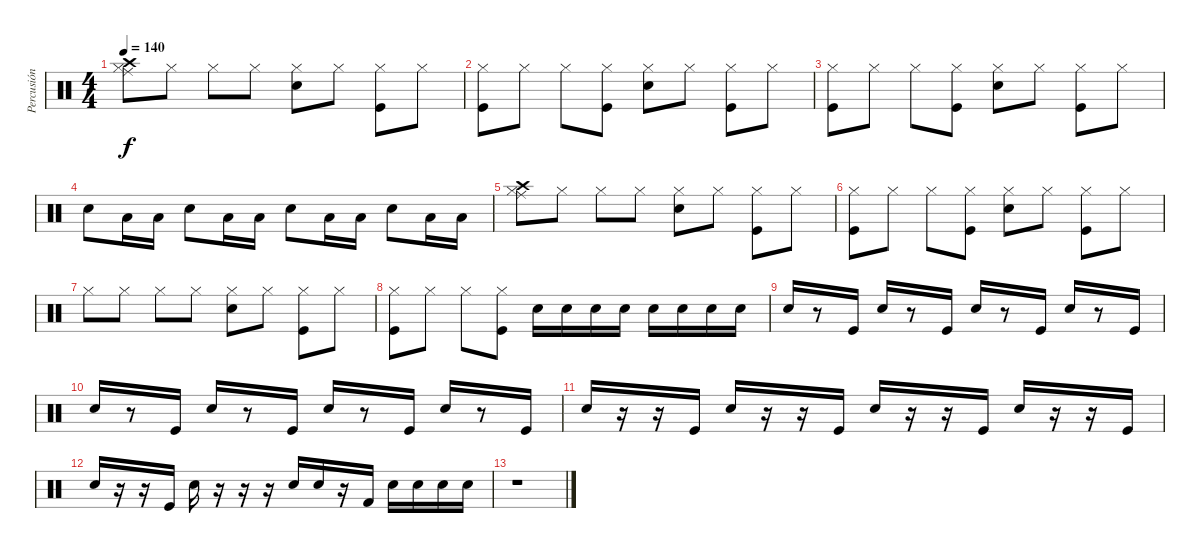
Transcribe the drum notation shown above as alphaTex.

\track ("Percusión" "Percusión") {instrument percussion}
\staff {score}
\articulation defaults
\ts (4 4)
\tempo 140
\clef neutral
\ks c
("Crash high (hit)" "Hi-Hat (closed)" "Ride (middle)").8{dy f} "Hi-Hat (closed)".8 "Hi-Hat (closed)".8 "Hi-Hat (closed)".8 ("Hi-Hat (closed)" "Snare (hit) 2").8 "Hi-Hat (closed)".8 ("Hi-Hat (closed)" "Kick (hit)").8 "Hi-Hat (closed)".8 |
("Hi-Hat (closed)" "Kick (hit)").8 "Hi-Hat (closed)".8 "Hi-Hat (closed)".8 ("Hi-Hat (closed)" "Kick (hit)").8 ("Hi-Hat (closed)" "Snare (hit) 2").8 "Hi-Hat (closed)".8 ("Hi-Hat (closed)" "Kick (hit)").8 "Hi-Hat (closed)".8 |
("Hi-Hat (closed)" "Kick (hit)").8 "Hi-Hat (closed)".8 "Hi-Hat (closed)".8 ("Hi-Hat (closed)" "Kick (hit)").8 ("Hi-Hat (closed)" "Snare (hit) 2").8 "Hi-Hat (closed)".8 ("Hi-Hat (closed)" "Kick (hit)").8 "Hi-Hat (closed)".8 |
"Snare (hit) 2".8 "Low Tom (hit)".16 "Low Tom (hit)".16 "Snare (hit) 2".8 "Low Tom (hit)".16 "Low Tom (hit)".16 "Snare (hit) 2".8 "Low Tom (hit)".16 "Low Tom (hit)".16 "Snare (hit) 2".8 "Low Tom (hit)".16 "Low Tom (hit)".16 |
("Crash high (hit)" "Hi-Hat (closed)" "Ride (middle)").8 "Hi-Hat (closed)".8 "Hi-Hat (closed)".8 "Hi-Hat (closed)".8 ("Hi-Hat (closed)" "Snare (hit) 2").8 "Hi-Hat (closed)".8 ("Hi-Hat (closed)" "Kick (hit)").8 "Hi-Hat (closed)".8 |
("Hi-Hat (closed)" "Kick (hit)").8 "Hi-Hat (closed)".8 "Hi-Hat (closed)".8 ("Hi-Hat (closed)" "Kick (hit)").8 ("Hi-Hat (closed)" "Snare (hit) 2").8 "Hi-Hat (closed)".8 ("Hi-Hat (closed)" "Kick (hit)").8 "Hi-Hat (closed)".8 |
"Hi-Hat (closed)".8 "Hi-Hat (closed)".8 "Hi-Hat (closed)".8 "Hi-Hat (closed)".8 ("Hi-Hat (closed)" "Snare (hit) 2").8 "Hi-Hat (closed)".8 ("Hi-Hat (closed)" "Kick (hit)").8 "Hi-Hat (closed)".8 |
("Hi-Hat (closed)" "Kick (hit)").8 "Hi-Hat (closed)".8 "Hi-Hat (closed)".8 ("Hi-Hat (closed)" "Kick (hit)").8 "Snare (hit) 2".16 "Snare (hit) 2".16 "Snare (hit) 2".16 "Snare (hit) 2".16 "Snare (hit) 2".16 "Snare (hit) 2".16 "Snare (hit) 2".16 "Snare (hit) 2".16 |
"Snare (hit) 2".16 r.8 "Kick (hit)".16 "Snare (hit) 2".16 r.8 "Kick (hit)".16 "Snare (hit) 2".16 r.8 "Kick (hit)".16 "Snare (hit) 2".16 r.8 "Kick (hit)".16 |
"Snare (hit) 2".16 r.8 "Kick (hit)".16 "Snare (hit) 2".16 r.8 "Kick (hit)".16 "Snare (hit) 2".16 r.8 "Kick (hit)".16 "Snare (hit) 2".16 r.8 "Kick (hit)".16 |
"Snare (hit) 2".16 r.16 r.16 "Kick (hit)".16 "Snare (hit) 2".16 r.16 r.16 "Kick (hit)".16 "Snare (hit) 2".16 r.16 r.16 "Kick (hit)".16 "Snare (hit) 2".16 r.16 r.16 "Kick (hit)".16 |
"Snare (hit) 2".16 r.16 r.16 "Kick (hit)".16 "Snare (hit) 2".16 r.16 r.16 r.16 "Snare (hit) 2".16 "Snare (hit) 2".16 r.16 "Kick (hit) 2".16 "Snare (hit) 2".16 "Snare (hit) 2".16 "Snare (hit) 2".16 "Snare (hit) 2".16 |
r.1
